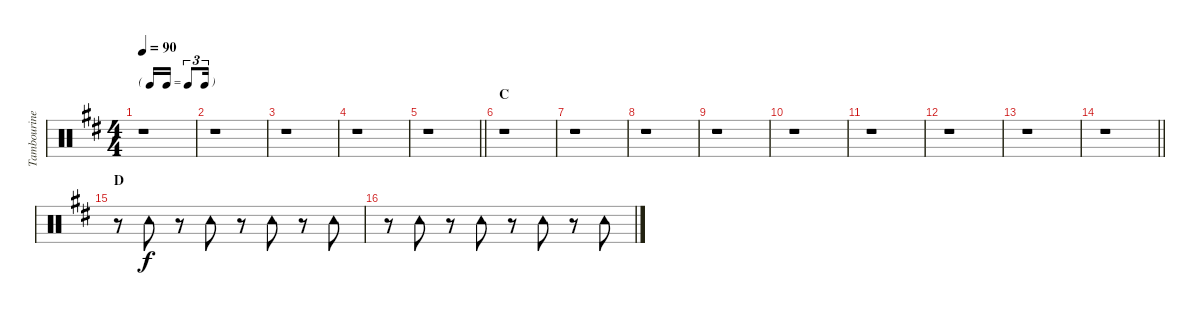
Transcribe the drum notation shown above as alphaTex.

\track ("Tambourine" "Tambourine") {instrument percussion}
\staff {score}
\articulation defaults
\ts (4 4)
\tf triplet16th
\tempo 90
\clef neutral
\ks d
r.1{dy f} |
r.1 |
r.1 |
r.1 |
\barLineRight lightlight
r.1 |
\section ("" "C")
r.1 |
r.1 |
r.1 |
r.1 |
r.1 |
r.1 |
r.1 |
r.1 |
\barLineRight lightlight
r.1 |
\section ("" "D")
r.8 "Tambourine (hit)".8 r.8 "Tambourine (hit)".8 r.8 "Tambourine (hit)".8 r.8 "Tambourine (hit)".8 |
r.8 "Tambourine (hit)".8 r.8 "Tambourine (hit)".8 r.8 "Tambourine (hit)".8 r.8 "Tambourine (hit)".8
